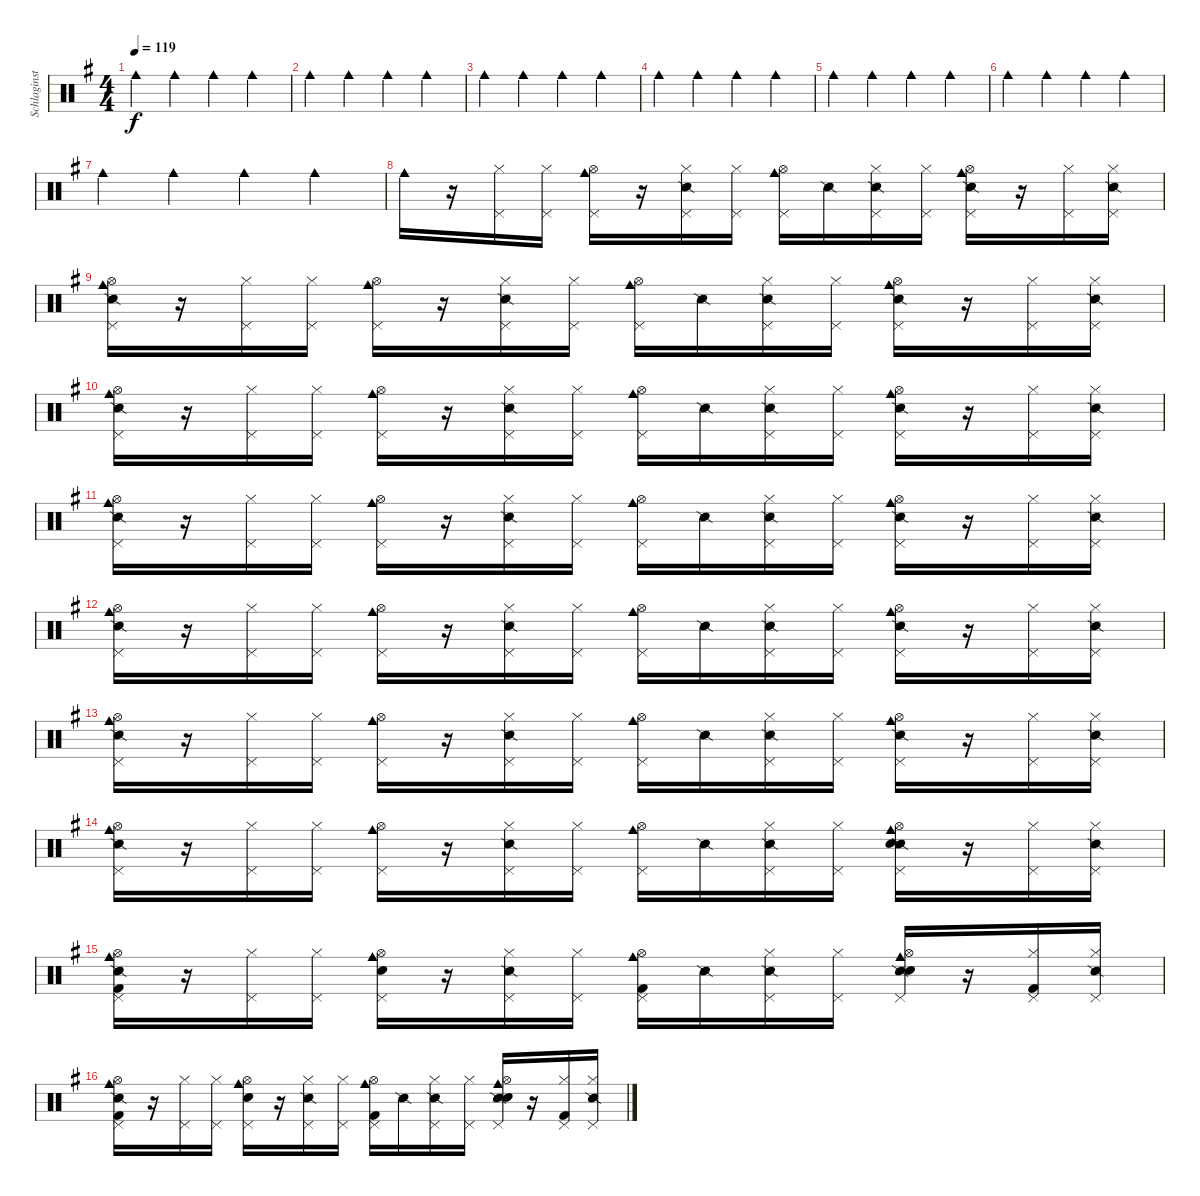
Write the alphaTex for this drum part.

\track ("Schlaginstrumente - Auswahl" "Schlaginst") {instrument percussion}
\staff {score}
\articulation defaults
\ts (4 4)
\tempo 119
\clef neutral
\ks g "Cowbell medium (hit)".4{dy f} "Cowbell medium (hit)".4 "Cowbell medium (hit)".4 "Cowbell medium (hit)".4
|
"Cowbell medium (hit)".4 "Cowbell medium (hit)".4 "Cowbell medium (hit)".4 "Cowbell medium (hit)".4 |
"Cowbell medium (hit)".4 "Cowbell medium (hit)".4 "Cowbell medium (hit)".4 "Cowbell medium (hit)".4 |
"Cowbell medium (hit)".4 "Cowbell medium (hit)".4 "Cowbell medium (hit)".4 "Cowbell medium (hit)".4 |
"Cowbell medium (hit)".4 "Cowbell medium (hit)".4 "Cowbell medium (hit)".4 "Cowbell medium (hit)".4 |
"Cowbell medium (hit)".4 "Cowbell medium (hit)".4 "Cowbell medium (hit)".4 "Cowbell medium (hit)".4 |
"Cowbell medium (hit)".4 "Cowbell medium (hit)".4 "Cowbell medium (hit)".4 "Cowbell medium (hit)".4 |
"Cowbell medium (hit)".16 r.16 ("Pedal Hi-Hat (hit)" "Hi-Hat (closed)").16 ("Pedal Hi-Hat (hit)" "Hi-Hat (closed)").16 ("Pedal Hi-Hat (hit)" "Hi-Hat (open)" "Cowbell medium (hit)").16 r.16 ("Pedal Hi-Hat (hit)" "Hi-Hat (closed)" "Snare (side stick) 2").16 ("Pedal Hi-Hat (hit)" "Hi-Hat (closed)").16 ("Pedal Hi-Hat (hit)" "Hi-Hat (open)" "Cowbell medium (hit)").16 "Snare (side stick) 2".16 ("Pedal Hi-Hat (hit)" "Hi-Hat (closed)" "Snare (side stick) 2").16 ("Pedal Hi-Hat (hit)" "Hi-Hat (closed)").16 ("Pedal Hi-Hat (hit)" "Hi-Hat (open)" "Snare (side stick) 2" "Cowbell medium (hit)").16 r.16 ("Pedal Hi-Hat (hit)" "Hi-Hat (closed)").16 ("Pedal Hi-Hat (hit)" "Hi-Hat (closed)" "Snare (side stick) 2").16 |
("Pedal Hi-Hat (hit)" "Hi-Hat (open)" "Snare (side stick) 2" "Cowbell medium (hit)").16 r.16 ("Pedal Hi-Hat (hit)" "Hi-Hat (closed)").16 ("Pedal Hi-Hat (hit)" "Hi-Hat (closed)").16 ("Pedal Hi-Hat (hit)" "Hi-Hat (open)" "Cowbell medium (hit)").16 r.16 ("Pedal Hi-Hat (hit)" "Hi-Hat (closed)" "Snare (side stick) 2").16 ("Pedal Hi-Hat (hit)" "Hi-Hat (closed)").16 ("Pedal Hi-Hat (hit)" "Hi-Hat (open)" "Cowbell medium (hit)").16 "Snare (side stick) 2".16 ("Pedal Hi-Hat (hit)" "Hi-Hat (closed)" "Snare (side stick) 2").16 ("Pedal Hi-Hat (hit)" "Hi-Hat (closed)").16 ("Pedal Hi-Hat (hit)" "Hi-Hat (open)" "Snare (side stick) 2" "Cowbell medium (hit)").16 r.16 ("Pedal Hi-Hat (hit)" "Hi-Hat (closed)").16 ("Pedal Hi-Hat (hit)" "Hi-Hat (closed)" "Snare (side stick) 2").16 |
("Pedal Hi-Hat (hit)" "Hi-Hat (open)" "Snare (side stick) 2" "Cowbell medium (hit)").16 r.16 ("Pedal Hi-Hat (hit)" "Hi-Hat (closed)").16 ("Pedal Hi-Hat (hit)" "Hi-Hat (closed)").16 ("Pedal Hi-Hat (hit)" "Hi-Hat (open)" "Cowbell medium (hit)").16 r.16 ("Pedal Hi-Hat (hit)" "Hi-Hat (closed)" "Snare (side stick) 2").16 ("Pedal Hi-Hat (hit)" "Hi-Hat (closed)").16 ("Pedal Hi-Hat (hit)" "Hi-Hat (open)" "Cowbell medium (hit)").16 "Snare (side stick) 2".16 ("Pedal Hi-Hat (hit)" "Hi-Hat (closed)" "Snare (side stick) 2").16 ("Pedal Hi-Hat (hit)" "Hi-Hat (closed)").16 ("Pedal Hi-Hat (hit)" "Hi-Hat (open)" "Snare (side stick) 2" "Cowbell medium (hit)").16 r.16 ("Pedal Hi-Hat (hit)" "Hi-Hat (closed)").16 ("Pedal Hi-Hat (hit)" "Hi-Hat (closed)" "Snare (side stick) 2").16 |
("Pedal Hi-Hat (hit)" "Hi-Hat (open)" "Snare (side stick) 2" "Cowbell medium (hit)").16 r.16 ("Pedal Hi-Hat (hit)" "Hi-Hat (closed)").16 ("Pedal Hi-Hat (hit)" "Hi-Hat (closed)").16 ("Pedal Hi-Hat (hit)" "Hi-Hat (open)" "Cowbell medium (hit)").16 r.16 ("Pedal Hi-Hat (hit)" "Hi-Hat (closed)" "Snare (side stick) 2").16 ("Pedal Hi-Hat (hit)" "Hi-Hat (closed)").16 ("Pedal Hi-Hat (hit)" "Hi-Hat (open)" "Cowbell medium (hit)").16 "Snare (side stick) 2".16 ("Pedal Hi-Hat (hit)" "Hi-Hat (closed)" "Snare (side stick) 2").16 ("Pedal Hi-Hat (hit)" "Hi-Hat (closed)").16 ("Pedal Hi-Hat (hit)" "Hi-Hat (open)" "Snare (side stick) 2" "Cowbell medium (hit)").16 r.16 ("Pedal Hi-Hat (hit)" "Hi-Hat (closed)").16 ("Pedal Hi-Hat (hit)" "Hi-Hat (closed)" "Snare (side stick) 2").16 |
("Pedal Hi-Hat (hit)" "Hi-Hat (open)" "Snare (side stick) 2" "Cowbell medium (hit)").16 r.16 ("Pedal Hi-Hat (hit)" "Hi-Hat (closed)").16 ("Pedal Hi-Hat (hit)" "Hi-Hat (closed)").16 ("Pedal Hi-Hat (hit)" "Hi-Hat (open)" "Cowbell medium (hit)").16 r.16 ("Pedal Hi-Hat (hit)" "Hi-Hat (closed)" "Snare (side stick) 2").16 ("Pedal Hi-Hat (hit)" "Hi-Hat (closed)").16 ("Pedal Hi-Hat (hit)" "Hi-Hat (open)" "Cowbell medium (hit)").16 "Snare (side stick) 2".16 ("Pedal Hi-Hat (hit)" "Hi-Hat (closed)" "Snare (side stick) 2").16 ("Pedal Hi-Hat (hit)" "Hi-Hat (closed)").16 ("Pedal Hi-Hat (hit)" "Hi-Hat (open)" "Snare (side stick) 2" "Cowbell medium (hit)").16 r.16 ("Pedal Hi-Hat (hit)" "Hi-Hat (closed)").16 ("Pedal Hi-Hat (hit)" "Hi-Hat (closed)" "Snare (side stick) 2").16 |
("Pedal Hi-Hat (hit)" "Hi-Hat (open)" "Snare (side stick) 2" "Cowbell medium (hit)").16 r.16 ("Pedal Hi-Hat (hit)" "Hi-Hat (closed)").16 ("Pedal Hi-Hat (hit)" "Hi-Hat (closed)").16 ("Pedal Hi-Hat (hit)" "Hi-Hat (open)" "Cowbell medium (hit)").16 r.16 ("Pedal Hi-Hat (hit)" "Hi-Hat (closed)" "Snare (side stick) 2").16 ("Pedal Hi-Hat (hit)" "Hi-Hat (closed)").16 ("Pedal Hi-Hat (hit)" "Hi-Hat (open)" "Cowbell medium (hit)").16 "Snare (side stick) 2".16 ("Pedal Hi-Hat (hit)" "Hi-Hat (closed)" "Snare (side stick) 2").16 ("Pedal Hi-Hat (hit)" "Hi-Hat (closed)").16 ("Pedal Hi-Hat (hit)" "Hi-Hat (open)" "Snare (side stick) 2" "Cowbell medium (hit)").16 r.16 ("Pedal Hi-Hat (hit)" "Hi-Hat (closed)").16 ("Pedal Hi-Hat (hit)" "Hi-Hat (closed)" "Snare (side stick) 2").16 |
("Pedal Hi-Hat (hit)" "Hi-Hat (open)" "Snare (side stick) 2" "Cowbell medium (hit)").16 r.16 ("Pedal Hi-Hat (hit)" "Hi-Hat (closed)").16 ("Pedal Hi-Hat (hit)" "Hi-Hat (closed)").16 ("Pedal Hi-Hat (hit)" "Hi-Hat (open)" "Cowbell medium (hit)").16 r.16 ("Pedal Hi-Hat (hit)" "Hi-Hat (closed)" "Snare (side stick) 2").16 ("Pedal Hi-Hat (hit)" "Hi-Hat (closed)").16 ("Pedal Hi-Hat (hit)" "Hi-Hat (open)" "Cowbell medium (hit)").16 "Snare (side stick) 2".16 ("Pedal Hi-Hat (hit)" "Hi-Hat (closed)" "Snare (side stick) 2").16 ("Pedal Hi-Hat (hit)" "Hi-Hat (closed)").16 ("Pedal Hi-Hat (hit)" "Hi-Hat (open)" "Cowbell medium (hit)" "Snare (side stick) 2" "Snare (hit) 2").16 r.16 ("Pedal Hi-Hat (hit)" "Hi-Hat (closed)").16 ("Pedal Hi-Hat (hit)" "Hi-Hat (closed)" "Snare (side stick) 2").16 |
("Pedal Hi-Hat (hit)" "Hi-Hat (open)" "Cowbell medium (hit)" "Snare (side stick) 2" "Kick (hit) 2").16 r.16 ("Pedal Hi-Hat (hit)" "Hi-Hat (closed)").16 ("Pedal Hi-Hat (hit)" "Hi-Hat (closed)").16 ("Pedal Hi-Hat (hit)" "Hi-Hat (open)" "Cowbell medium (hit)" "Snare (hit) 2").16 r.16 ("Pedal Hi-Hat (hit)" "Hi-Hat (closed)" "Snare (side stick) 2").16 ("Pedal Hi-Hat (hit)" "Hi-Hat (closed)").16 ("Pedal Hi-Hat (hit)" "Hi-Hat (open)" "Cowbell medium (hit)" "Kick (hit) 2").16 "Snare (side stick) 2".16 ("Pedal Hi-Hat (hit)" "Hi-Hat (closed)" "Snare (side stick) 2").16 ("Pedal Hi-Hat (hit)" "Hi-Hat (closed)").16 ("Pedal Hi-Hat (hit)" "Hi-Hat (open)" "Cowbell medium (hit)" "Snare (side stick) 2" "Snare (hit) 2").16 r.16 ("Pedal Hi-Hat (hit)" "Hi-Hat (closed)" "Kick (hit) 2").16 ("Pedal Hi-Hat (hit)" "Hi-Hat (closed)" "Snare (side stick) 2").16 |
("Pedal Hi-Hat (hit)" "Hi-Hat (open)" "Cowbell medium (hit)" "Snare (side stick) 2" "Kick (hit) 2").16 r.16 ("Pedal Hi-Hat (hit)" "Hi-Hat (closed)").16 ("Pedal Hi-Hat (hit)" "Hi-Hat (closed)").16 ("Pedal Hi-Hat (hit)" "Hi-Hat (open)" "Cowbell medium (hit)" "Snare (hit) 2").16 r.16 ("Pedal Hi-Hat (hit)" "Hi-Hat (closed)" "Snare (side stick) 2").16 ("Pedal Hi-Hat (hit)" "Hi-Hat (closed)").16 ("Pedal Hi-Hat (hit)" "Hi-Hat (open)" "Cowbell medium (hit)" "Kick (hit) 2").16 "Snare (side stick) 2".16 ("Pedal Hi-Hat (hit)" "Hi-Hat (closed)" "Snare (side stick) 2").16 ("Pedal Hi-Hat (hit)" "Hi-Hat (closed)").16 ("Pedal Hi-Hat (hit)" "Hi-Hat (open)" "Cowbell medium (hit)" "Snare (side stick) 2" "Snare (hit) 2").16 r.16 ("Pedal Hi-Hat (hit)" "Hi-Hat (closed)" "Kick (hit) 2").16 ("Pedal Hi-Hat (hit)" "Hi-Hat (closed)" "Snare (side stick) 2").16
